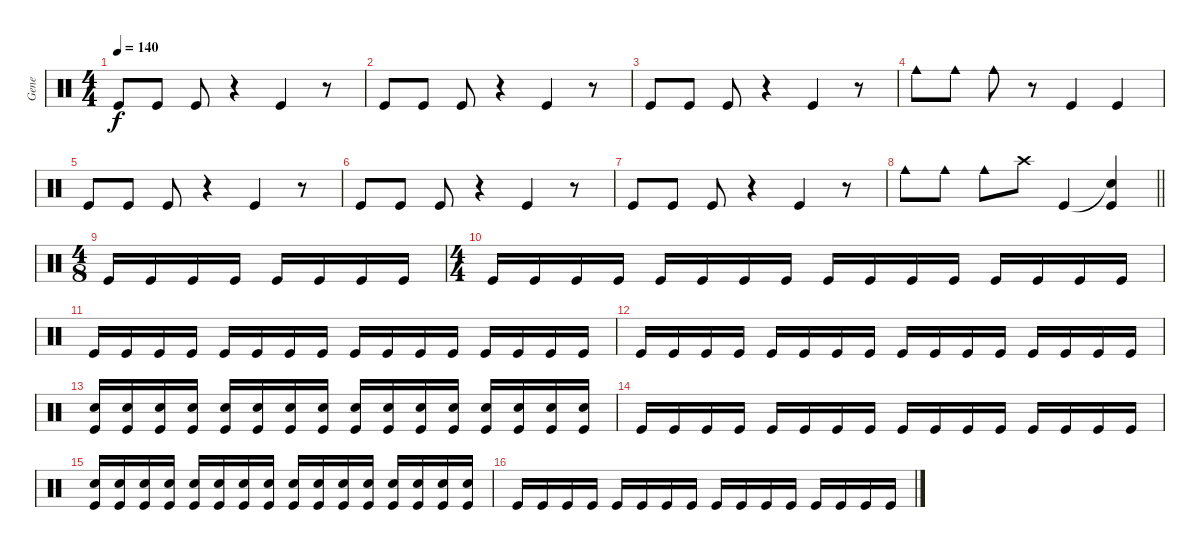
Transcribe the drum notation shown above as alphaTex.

\track ("Gene" "Gene") {instrument percussion}
\staff
\articulation defaults
\ts (4 4)
\tempo 140
\clef neutral
\ks c "Kick (hit)".8{dy f} "Kick (hit)".8 "Kick (hit)".8
r.4 "Kick (hit)".4 r.8 |
"Kick (hit)".8 "Kick (hit)".8 "Kick (hit)".8 r.4 "Kick (hit)".4 r.8 |
"Kick (hit)".8 "Kick (hit)".8 "Kick (hit)".8 r.4 "Kick (hit)".4 r.8 |
"Cowbell medium (hit)".8 "Cowbell medium (hit)".8 "Cowbell medium (hit)".8 r.8 "Kick (hit)".4 "Kick (hit)".4 |
"Kick (hit)".8 "Kick (hit)".8 "Kick (hit)".8 r.4 "Kick (hit)".4 r.8 |
"Kick (hit)".8 "Kick (hit)".8 "Kick (hit)".8 r.4 "Kick (hit)".4 r.8 |
"Kick (hit)".8 "Kick (hit)".8 "Kick (hit)".8 r.4 "Kick (hit)".4 r.8 |
\barLineRight lightlight "Cowbell medium (hit)".8 "Cowbell medium (hit)".8 "Cowbell medium (hit)".8 "Crash high (hit)".8 "Kick (hit)".4
("Snare (hit)"{t} "Kick (hit)").4 |
\ts (4 8)
"Kick (hit)".16 "Kick (hit)".16 "Kick (hit)".16 "Kick (hit)".16 "Kick (hit)".16 "Kick (hit)".16 "Kick (hit)".16 "Kick (hit)".16 |
\ts (4 4)
"Kick (hit)".16 "Kick (hit)".16 "Kick (hit)".16 "Kick (hit)".16 "Kick (hit)".16 "Kick (hit)".16 "Kick (hit)".16 "Kick (hit)".16 "Kick (hit)".16 "Kick (hit)".16 "Kick (hit)".16 "Kick (hit)".16 "Kick (hit)".16 "Kick (hit)".16 "Kick (hit)".16 "Kick (hit)".16 |
"Kick (hit)".16 "Kick (hit)".16 "Kick (hit)".16 "Kick (hit)".16 "Kick (hit)".16 "Kick (hit)".16 "Kick (hit)".16 "Kick (hit)".16 "Kick (hit)".16 "Kick (hit)".16 "Kick (hit)".16 "Kick (hit)".16 "Kick (hit)".16 "Kick (hit)".16 "Kick (hit)".16 "Kick (hit)".16 |
"Kick (hit)".16 "Kick (hit)".16 "Kick (hit)".16 "Kick (hit)".16 "Kick (hit)".16 "Kick (hit)".16 "Kick (hit)".16 "Kick (hit)".16 "Kick (hit)".16 "Kick (hit)".16 "Kick (hit)".16 "Kick (hit)".16 "Kick (hit)".16 "Kick (hit)".16 "Kick (hit)".16 "Kick (hit)".16 |
("Electric Snare (hit)" "Kick (hit)").16 ("Electric Snare (hit)" "Kick (hit)").16 ("Electric Snare (hit)" "Kick (hit)").16 ("Electric Snare (hit)" "Kick (hit)").16 ("Electric Snare (hit)" "Kick (hit)").16 ("Electric Snare (hit)" "Kick (hit)").16 ("Electric Snare (hit)" "Kick (hit)").16 ("Electric Snare (hit)" "Kick (hit)").16 ("Electric Snare (hit)" "Kick (hit)").16 ("Electric Snare (hit)" "Kick (hit)").16 ("Electric Snare (hit)" "Kick (hit)").16 ("Electric Snare (hit)" "Kick (hit)").16 ("Electric Snare (hit)" "Kick (hit)").16 ("Electric Snare (hit)" "Kick (hit)").16 ("Electric Snare (hit)" "Kick (hit)").16 ("Electric Snare (hit)" "Kick (hit)").16 |
"Kick (hit)".16 "Kick (hit)".16 "Kick (hit)".16 "Kick (hit)".16 "Kick (hit)".16 "Kick (hit)".16 "Kick (hit)".16 "Kick (hit)".16 "Kick (hit)".16 "Kick (hit)".16 "Kick (hit)".16 "Kick (hit)".16 "Kick (hit)".16 "Kick (hit)".16 "Kick (hit)".16 "Kick (hit)".16 |
("Electric Snare (hit)" "Kick (hit)").16 ("Electric Snare (hit)" "Kick (hit)").16 ("Electric Snare (hit)" "Kick (hit)").16 ("Electric Snare (hit)" "Kick (hit)").16 ("Electric Snare (hit)" "Kick (hit)").16 ("Electric Snare (hit)" "Kick (hit)").16 ("Electric Snare (hit)" "Kick (hit)").16 ("Electric Snare (hit)" "Kick (hit)").16 ("Electric Snare (hit)" "Kick (hit)").16 ("Electric Snare (hit)" "Kick (hit)").16 ("Electric Snare (hit)" "Kick (hit)").16 ("Electric Snare (hit)" "Kick (hit)").16 ("Electric Snare (hit)" "Kick (hit)").16 ("Electric Snare (hit)" "Kick (hit)").16 ("Electric Snare (hit)" "Kick (hit)").16 ("Electric Snare (hit)" "Kick (hit)").16 |
"Kick (hit)".16 "Kick (hit)".16 "Kick (hit)".16 "Kick (hit)".16 "Kick (hit)".16 "Kick (hit)".16 "Kick (hit)".16 "Kick (hit)".16 "Kick (hit)".16 "Kick (hit)".16 "Kick (hit)".16 "Kick (hit)".16 "Kick (hit)".16 "Kick (hit)".16 "Kick (hit)".16 "Kick (hit)".16
